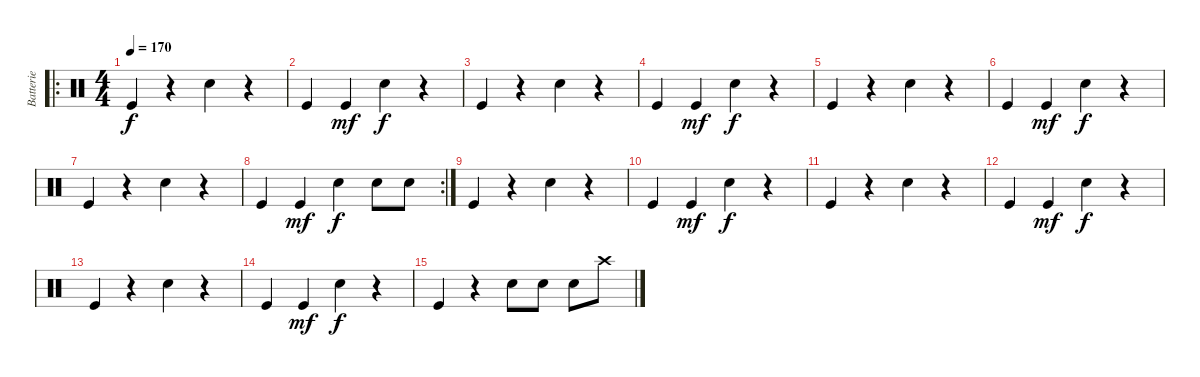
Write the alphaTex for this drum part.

\track ("Batterie" "Batterie") {instrument percussion}
\staff {score}
\articulation defaults
\ro
\ts (4 4)
\tempo 170
\clef neutral
\ks c "Kick (hit)".4{dy f}
r.4 "Snare (hit) 2".4 r.4 |
"Kick (hit)".4 "Kick (hit)".4{dy mf} "Snare (hit) 2".4{dy f} r.4 |
"Kick (hit)".4 r.4 "Snare (hit) 2".4 r.4 |
"Kick (hit)".4 "Kick (hit)".4{dy mf} "Snare (hit) 2".4{dy f} r.4 |
"Kick (hit)".4 r.4 "Snare (hit) 2".4 r.4 |
"Kick (hit)".4 "Kick (hit)".4{dy mf} "Snare (hit) 2".4{dy f} r.4 |
"Kick (hit)".4 r.4 "Snare (hit) 2".4 r.4 |
\rc 2 "Kick (hit)".4 "Kick (hit)".4{dy mf} "Snare (hit) 2".4{dy f} "Snare (hit) 2".8 "Snare (hit) 2".8
|
"Kick (hit)".4 r.4 "Snare (hit) 2".4 r.4 |
"Kick (hit)".4 "Kick (hit)".4{dy mf} "Snare (hit) 2".4{dy f} r.4 |
"Kick (hit)".4 r.4 "Snare (hit) 2".4 r.4 |
"Kick (hit)".4 "Kick (hit)".4{dy mf} "Snare (hit) 2".4{dy f} r.4 |
"Kick (hit)".4 r.4 "Snare (hit) 2".4 r.4 |
"Kick (hit)".4 "Kick (hit)".4{dy mf} "Snare (hit) 2".4{dy f} r.4 |
"Kick (hit)".4 r.4 "Snare (hit) 2".8 "Snare (hit) 2".8 "Snare (hit) 2".8 "Crash high (hit)".8
